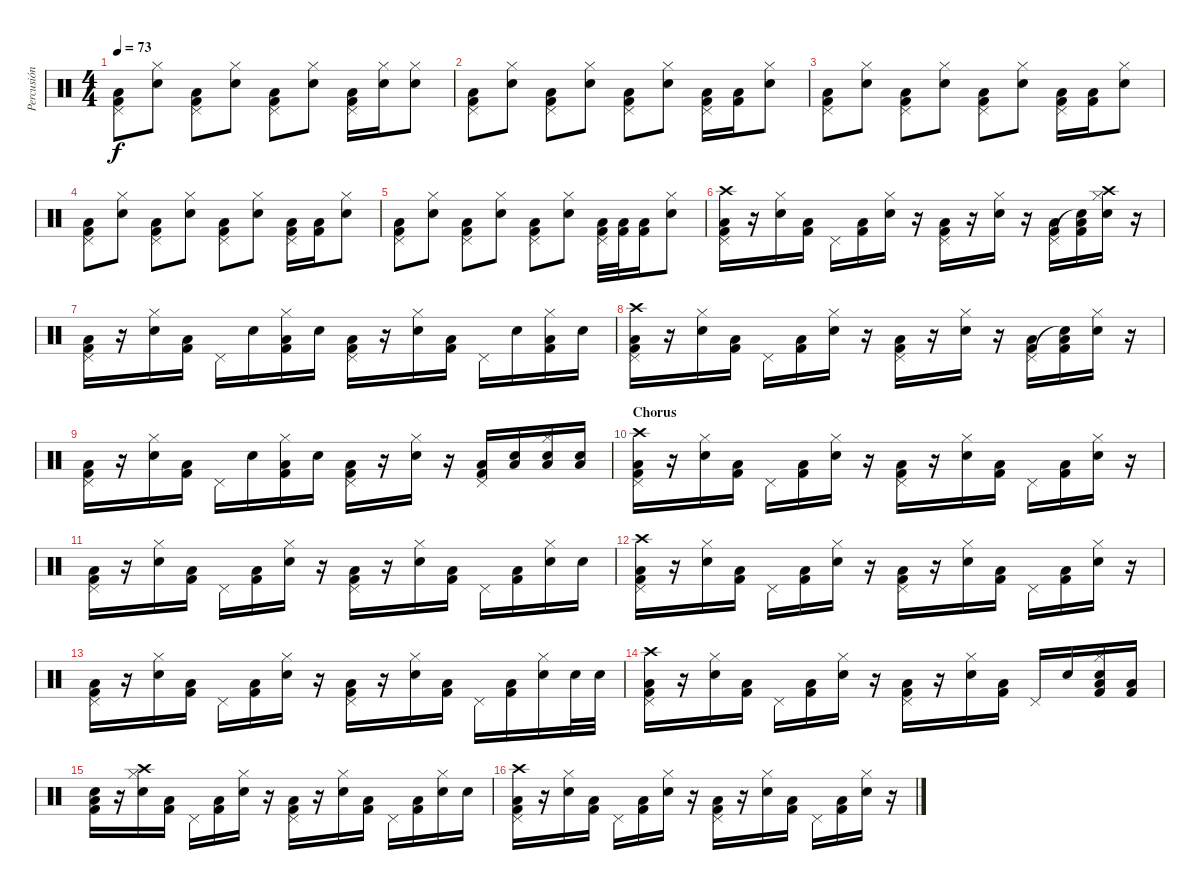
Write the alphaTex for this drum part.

\track ("Percusión" "Percusión") {instrument percussion}
\staff {score}
\articulation defaults
\ts (4 4)
\tempo 73
\clef neutral
\ks c
("Pedal Hi-Hat (hit)" "Low Floor Tom (hit)" "Kick (hit) 2").8{dy f} ("Hi-Hat (closed)" "Snare (hit) 2").8 ("Pedal Hi-Hat (hit)" "Low Floor Tom (hit)" "Kick (hit) 2").8 ("Hi-Hat (closed)" "Snare (hit) 2").8 ("Pedal Hi-Hat (hit)" "Low Floor Tom (hit)" "Kick (hit) 2").8 ("Hi-Hat (closed)" "Snare (hit) 2").8 ("Pedal Hi-Hat (hit)" "Low Floor Tom (hit)" "Kick (hit) 2").16 ("Hi-Hat (closed)" "Snare (hit) 2").16 ("Hi-Hat (closed)" "Snare (hit) 2").8 |
("Pedal Hi-Hat (hit)" "Low Floor Tom (hit)" "Kick (hit) 2").8 ("Hi-Hat (closed)" "Snare (hit) 2").8 ("Pedal Hi-Hat (hit)" "Low Floor Tom (hit)" "Kick (hit) 2").8 ("Hi-Hat (closed)" "Snare (hit) 2").8 ("Pedal Hi-Hat (hit)" "Low Floor Tom (hit)" "Kick (hit) 2").8 ("Hi-Hat (closed)" "Snare (hit) 2").8 ("Pedal Hi-Hat (hit)" "Low Floor Tom (hit)" "Kick (hit) 2").16 ("Low Floor Tom (hit)" "Kick (hit) 2").16 ("Hi-Hat (closed)" "Snare (hit) 2").8 |
("Pedal Hi-Hat (hit)" "Low Floor Tom (hit)" "Kick (hit) 2").8 ("Hi-Hat (closed)" "Snare (hit) 2").8 ("Pedal Hi-Hat (hit)" "Low Floor Tom (hit)" "Kick (hit) 2").8 ("Hi-Hat (closed)" "Snare (hit) 2").8 ("Pedal Hi-Hat (hit)" "Low Floor Tom (hit)" "Kick (hit) 2").8 ("Hi-Hat (closed)" "Snare (hit) 2").8 ("Pedal Hi-Hat (hit)" "Low Floor Tom (hit)" "Kick (hit) 2").16 ("Low Floor Tom (hit)" "Kick (hit) 2").16 ("Hi-Hat (closed)" "Snare (hit) 2").8 |
("Pedal Hi-Hat (hit)" "Low Floor Tom (hit)" "Kick (hit) 2").8 ("Hi-Hat (closed)" "Snare (hit) 2").8 ("Pedal Hi-Hat (hit)" "Low Floor Tom (hit)" "Kick (hit) 2").8 ("Hi-Hat (closed)" "Snare (hit) 2").8 ("Pedal Hi-Hat (hit)" "Low Floor Tom (hit)" "Kick (hit) 2").8 ("Hi-Hat (closed)" "Snare (hit) 2").8 ("Pedal Hi-Hat (hit)" "Low Floor Tom (hit)" "Kick (hit) 2").16 ("Low Floor Tom (hit)" "Kick (hit) 2").16 ("Hi-Hat (closed)" "Snare (hit) 2").8 |
("Pedal Hi-Hat (hit)" "Low Floor Tom (hit)" "Kick (hit) 2").8 ("Hi-Hat (closed)" "Snare (hit) 2").8 ("Pedal Hi-Hat (hit)" "Low Floor Tom (hit)" "Kick (hit) 2").8 ("Hi-Hat (closed)" "Snare (hit) 2").8 ("Pedal Hi-Hat (hit)" "Low Floor Tom (hit)" "Kick (hit) 2").8 ("Hi-Hat (closed)" "Snare (hit) 2").8 ("Pedal Hi-Hat (hit)" "Low Floor Tom (hit)" "Kick (hit) 2").32 ("Low Floor Tom (hit)" "Kick (hit) 2").32 ("Low Floor Tom (hit)" "Kick (hit) 2").16 ("Hi-Hat (closed)" "Snare (hit) 2").8 |
("Pedal Hi-Hat (hit)" "Low Floor Tom (hit)" "Kick (hit) 2" "Crash high (hit)").16 r.16 ("Hi-Hat (closed)" "Snare (hit) 2").16 ("Low Floor Tom (hit)" "Kick (hit) 2").16 "Pedal Hi-Hat (hit)".16 ("Low Floor Tom (hit)" "Kick (hit) 2").16 ("Hi-Hat (closed)" "Snare (hit) 2").16 r.16 ("Pedal Hi-Hat (hit)" "Low Floor Tom (hit)" "Kick (hit) 2").16 r.16 ("Hi-Hat (closed)" "Snare (hit) 2").16 r.16 ("Pedal Hi-Hat (hit)" "Low Floor Tom (hit)" "Kick (hit) 2").16 ("Snare (hit)"{t} "Low Floor Tom (hit)" "Kick (hit) 2").16 ("Hi-Hat (closed)" "Snare (hit) 2" "Crash high (hit)").16 r.16 |
("Pedal Hi-Hat (hit)" "Low Floor Tom (hit)" "Kick (hit) 2").16 r.16 ("Hi-Hat (closed)" "Snare (hit) 2").16 ("Low Floor Tom (hit)" "Kick (hit) 2").16 "Pedal Hi-Hat (hit)".16 "Snare (hit) 2".16 ("Hi-Hat (closed)" "Low Floor Tom (hit)" "Kick (hit) 2").16 "Snare (hit) 2".16 ("Pedal Hi-Hat (hit)" "Low Floor Tom (hit)" "Kick (hit) 2").16 r.16 ("Hi-Hat (closed)" "Snare (hit) 2").16 ("Low Floor Tom (hit)" "Kick (hit) 2").16 "Pedal Hi-Hat (hit)".16 "Snare (hit) 2".16 ("Hi-Hat (closed)" "Low Floor Tom (hit)" "Kick (hit) 2").16 "Snare (hit) 2".16 |
("Pedal Hi-Hat (hit)" "Low Floor Tom (hit)" "Kick (hit) 2" "Crash high (hit)").16 r.16 ("Hi-Hat (closed)" "Snare (hit) 2").16 ("Low Floor Tom (hit)" "Kick (hit) 2").16 "Pedal Hi-Hat (hit)".16 ("Low Floor Tom (hit)" "Kick (hit) 2").16 ("Hi-Hat (closed)" "Snare (hit) 2").16 r.16 ("Pedal Hi-Hat (hit)" "Low Floor Tom (hit)" "Kick (hit) 2").16 r.16 ("Hi-Hat (closed)" "Snare (hit) 2").16 r.16 ("Pedal Hi-Hat (hit)" "Low Floor Tom (hit)" "Kick (hit) 2").16 ("Snare (hit)"{t} "Low Floor Tom (hit)" "Kick (hit) 2").16 ("Hi-Hat (closed)" "Snare (hit) 2").16 r.16 |
("Pedal Hi-Hat (hit)" "Low Floor Tom (hit)" "Kick (hit) 2").16 r.16 ("Hi-Hat (closed)" "Snare (hit) 2").16 ("Low Floor Tom (hit)" "Kick (hit) 2").16 "Pedal Hi-Hat (hit)".16 "Snare (hit) 2".16 ("Hi-Hat (closed)" "Low Floor Tom (hit)" "Kick (hit) 2").16 "Snare (hit) 2".16 ("Pedal Hi-Hat (hit)" "Low Floor Tom (hit)" "Kick (hit) 2").16 r.16 ("Hi-Hat (closed)" "Snare (hit) 2").16 r.16 ("Pedal Hi-Hat (hit)" "Low Floor Tom (hit)" "Kick (hit) 2").16 ("Low Floor Tom (hit)" "Snare (hit) 2").16 ("Hi-Hat (closed)" "Low Floor Tom (hit)" "Snare (hit) 2").16 ("Low Floor Tom (hit)" "Snare (hit) 2").16 |
\section ("" "Chorus")
("Pedal Hi-Hat (hit)" "Low Floor Tom (hit)" "Kick (hit) 2" "Crash high (hit)").16 r.16 ("Hi-Hat (closed)" "Snare (hit) 2").16 ("Low Floor Tom (hit)" "Kick (hit) 2").16 "Pedal Hi-Hat (hit)".16 ("Low Floor Tom (hit)" "Kick (hit) 2").16 ("Hi-Hat (closed)" "Snare (hit) 2").16 r.16 ("Pedal Hi-Hat (hit)" "Low Floor Tom (hit)" "Kick (hit) 2").16 r.16 ("Hi-Hat (closed)" "Snare (hit) 2").16 ("Low Floor Tom (hit)" "Kick (hit) 2").16 "Pedal Hi-Hat (hit)".16 ("Low Floor Tom (hit)" "Kick (hit) 2").16 ("Hi-Hat (closed)" "Snare (hit) 2").16 r.16 |
("Pedal Hi-Hat (hit)" "Low Floor Tom (hit)" "Kick (hit) 2").16 r.16 ("Hi-Hat (closed)" "Snare (hit) 2").16 ("Low Floor Tom (hit)" "Kick (hit) 2").16 "Pedal Hi-Hat (hit)".16 ("Low Floor Tom (hit)" "Kick (hit) 2").16 ("Hi-Hat (closed)" "Snare (hit) 2").16 r.16 ("Pedal Hi-Hat (hit)" "Low Floor Tom (hit)" "Kick (hit) 2").16 r.16 ("Hi-Hat (closed)" "Snare (hit) 2").16 ("Low Floor Tom (hit)" "Kick (hit) 2").16 "Pedal Hi-Hat (hit)".16 ("Low Floor Tom (hit)" "Kick (hit) 2").16 ("Hi-Hat (closed)" "Snare (hit) 2").16 "Snare (hit) 2".16 |
("Pedal Hi-Hat (hit)" "Low Floor Tom (hit)" "Kick (hit) 2" "Crash high (hit)").16 r.16 ("Hi-Hat (closed)" "Snare (hit) 2").16 ("Low Floor Tom (hit)" "Kick (hit) 2").16 "Pedal Hi-Hat (hit)".16 ("Low Floor Tom (hit)" "Kick (hit) 2").16 ("Hi-Hat (closed)" "Snare (hit) 2").16 r.16 ("Pedal Hi-Hat (hit)" "Low Floor Tom (hit)" "Kick (hit) 2").16 r.16 ("Hi-Hat (closed)" "Snare (hit) 2").16 ("Low Floor Tom (hit)" "Kick (hit) 2").16 "Pedal Hi-Hat (hit)".16 ("Low Floor Tom (hit)" "Kick (hit) 2").16 ("Hi-Hat (closed)" "Snare (hit) 2").16 r.16 |
("Pedal Hi-Hat (hit)" "Low Floor Tom (hit)" "Kick (hit) 2").16 r.16 ("Hi-Hat (closed)" "Snare (hit) 2").16 ("Low Floor Tom (hit)" "Kick (hit) 2").16 "Pedal Hi-Hat (hit)".16 ("Low Floor Tom (hit)" "Kick (hit) 2").16 ("Hi-Hat (closed)" "Snare (hit) 2").16 r.16 ("Pedal Hi-Hat (hit)" "Low Floor Tom (hit)" "Kick (hit) 2").16 r.16 ("Hi-Hat (closed)" "Snare (hit) 2").16 ("Low Floor Tom (hit)" "Kick (hit) 2").16 "Pedal Hi-Hat (hit)".16 ("Low Floor Tom (hit)" "Kick (hit) 2").16 ("Hi-Hat (closed)" "Snare (hit) 2").16 "Snare (hit) 2".32 "Snare (hit) 2".32 |
("Pedal Hi-Hat (hit)" "Low Floor Tom (hit)" "Kick (hit) 2" "Crash high (hit)").16 r.16 ("Hi-Hat (closed)" "Snare (hit) 2").16 ("Low Floor Tom (hit)" "Kick (hit) 2").16 "Pedal Hi-Hat (hit)".16 ("Low Floor Tom (hit)" "Kick (hit) 2").16 ("Hi-Hat (closed)" "Snare (hit) 2").16 r.16 ("Pedal Hi-Hat (hit)" "Low Floor Tom (hit)" "Kick (hit) 2").16 r.16 ("Hi-Hat (closed)" "Snare (hit) 2").16 ("Low Floor Tom (hit)" "Kick (hit) 2").16 "Pedal Hi-Hat (hit)".16 "Snare (hit) 2".16 ("Hi-Hat (closed)" "Low Floor Tom (hit)" "Kick (hit) 2" "Snare (hit) 2").16 ("Low Floor Tom (hit)" "Kick (hit) 2").16 |
("Low Floor Tom (hit)" "Kick (hit) 2" "Snare (hit) 2").16 r.16 ("Hi-Hat (closed)" "Snare (hit) 2" "Crash high (hit)").16 ("Low Floor Tom (hit)" "Kick (hit) 2").16 "Pedal Hi-Hat (hit)".16 ("Low Floor Tom (hit)" "Kick (hit) 2").16 ("Hi-Hat (closed)" "Snare (hit) 2").16 r.16 ("Pedal Hi-Hat (hit)" "Low Floor Tom (hit)" "Kick (hit) 2").16 r.16 ("Hi-Hat (closed)" "Snare (hit) 2").16 ("Low Floor Tom (hit)" "Kick (hit) 2").16 "Pedal Hi-Hat (hit)".16 ("Low Floor Tom (hit)" "Kick (hit) 2").16 ("Hi-Hat (closed)" "Snare (hit) 2").16 "Snare (hit) 2".16 |
("Pedal Hi-Hat (hit)" "Low Floor Tom (hit)" "Kick (hit) 2" "Crash high (hit)").16 r.16 ("Hi-Hat (closed)" "Snare (hit) 2").16 ("Low Floor Tom (hit)" "Kick (hit) 2").16 "Pedal Hi-Hat (hit)".16 ("Low Floor Tom (hit)" "Kick (hit) 2").16 ("Hi-Hat (closed)" "Snare (hit) 2").16 r.16 ("Pedal Hi-Hat (hit)" "Low Floor Tom (hit)" "Kick (hit) 2").16 r.16 ("Hi-Hat (closed)" "Snare (hit) 2").16 ("Low Floor Tom (hit)" "Kick (hit) 2").16 "Pedal Hi-Hat (hit)".16 ("Low Floor Tom (hit)" "Kick (hit) 2").16 ("Hi-Hat (closed)" "Snare (hit) 2").16 r.16
